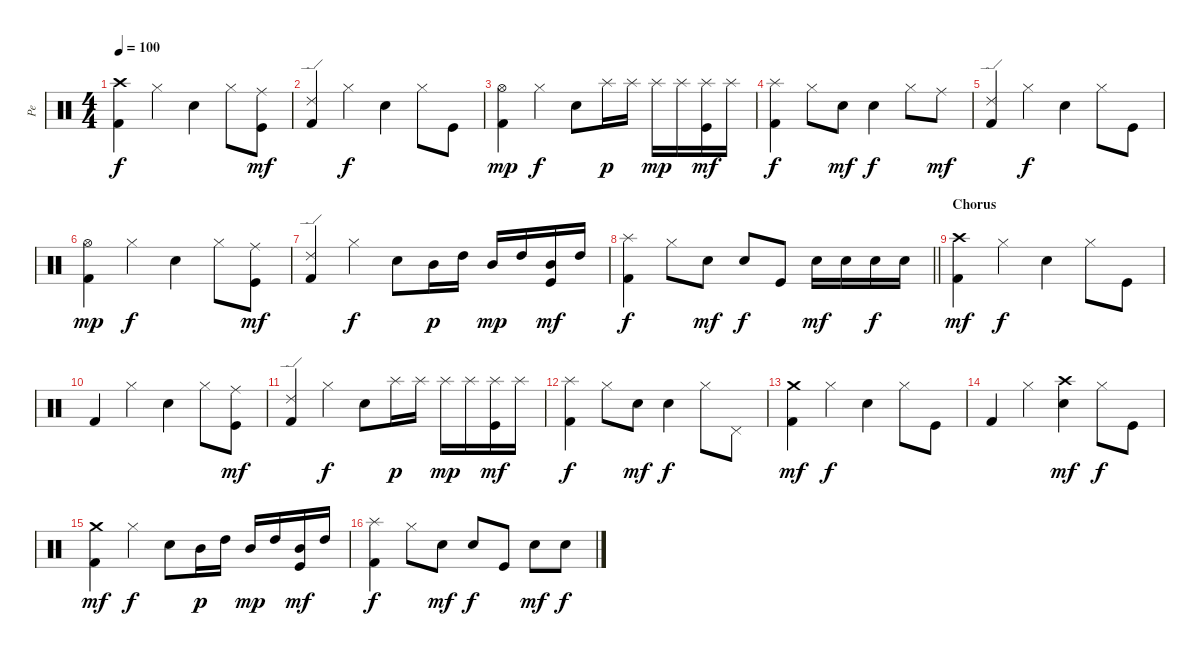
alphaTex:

\track ("Pe" "Pe") {instrument percussion}
\staff {score}
\articulation defaults
\ts (4 4)
\tempo 100
\clef neutral
\ks c
("Kick (hit) 2" "Crash high (hit)").4{dy f} "Hi-Hat (closed)".4 "Electric Snare (hit)".4 "Hi-Hat (closed)".8 ("Kick (hit)" "Ride (middle)").8{dy mf} |
("Kick (hit) 2" "Ride (edge) 2").4 "Hi-Hat (closed)".4{dy f} "Electric Snare (hit)".4 "Hi-Hat (closed)".8 "Kick (hit)".8 |
("Kick (hit) 2" "Hi-Hat (open)").4{dy mp} "Hi-Hat (closed)".4{dy f} "Electric Snare (hit)".8 "Splash (hit)".16{dy p} "Splash (hit)".16 "Splash (hit)".16{dy mp} "Splash (hit)".16 ("Kick (hit)" "Splash (hit)").16{dy mf} "Splash (hit)".16 |
("Kick (hit) 2" "Splash (hit)").4{dy f} "Hi-Hat (closed)".8 "Electric Snare (hit)".8{dy mf} "Electric Snare (hit)".4{dy f} "Hi-Hat (closed)".8 "Ride (middle)".8{dy mf} |
("Kick (hit) 2" "Ride (edge) 2").4 "Hi-Hat (closed)".4{dy f} "Electric Snare (hit)".4 "Hi-Hat (closed)".8 "Kick (hit)".8 |
("Kick (hit) 2" "Hi-Hat (open)").4{dy mp} "Hi-Hat (closed)".4{dy f} "Electric Snare (hit)".4 "Hi-Hat (closed)".8 ("Kick (hit)" "Ride (middle)").8{dy mf} |
("Kick (hit) 2" "Ride (edge) 2").4 "Hi-Hat (closed)".4{dy f} "Electric Snare (hit)".8 "Mid Tom (hit)".16{dy p} "High Tom (hit)".16 "Mid Tom (hit)".16{dy mp} "High Tom (hit)".16 ("Kick (hit)" "Mid Tom (hit)").16{dy mf} "High Tom (hit)".16 |
\barLineRight lightlight
("Kick (hit) 2" "Splash (hit)").4{dy f} "Hi-Hat (closed)".8 "Electric Snare (hit)".8{dy mf} "Electric Snare (hit)".8{dy f} "Kick (hit)".8 "Electric Snare (hit)".16{dy mf} "Electric Snare (hit)".16 "Electric Snare (hit)".16{dy f} "Electric Snare (hit)".16 |
\section ("" "Chorus")
("Kick (hit) 2" "Crash high (hit)").4{dy mf} "Hi-Hat (closed)".4{dy f} "Electric Snare (hit)".4 "Hi-Hat (closed)".8 "Kick (hit)".8 |
"Kick (hit) 2".4 "Hi-Hat (closed)".4 "Electric Snare (hit)".4 "Hi-Hat (closed)".8 ("Kick (hit)" "Ride (middle)").8{dy mf} |
("Kick (hit) 2" "Ride (edge) 2").4 "Hi-Hat (closed)".4{dy f} "Electric Snare (hit)".8 "Splash (hit)".16{dy p} "Splash (hit)".16 "Splash (hit)".16{dy mp} "Splash (hit)".16 ("Kick (hit)" "Splash (hit)").16{dy mf} "Splash (hit)".16 |
("Kick (hit) 2" "Splash (hit)").4{dy f} "Hi-Hat (closed)".8 "Electric Snare (hit)".8{dy mf} "Electric Snare (hit)".4{dy f} "Hi-Hat (closed)".8 "Pedal Hi-Hat (hit)".8 |
("Kick (hit) 2" "Crash medium (hit)").4{dy mf} "Hi-Hat (closed)".4{dy f} "Electric Snare (hit)".4 "Hi-Hat (closed)".8 "Kick (hit)".8 |
"Kick (hit) 2".4 "Hi-Hat (closed)".4 ("Electric Snare (hit)" "Crash high (hit)").4{dy mf} "Hi-Hat (closed)".8{dy f} "Kick (hit)".8 |
("Kick (hit) 2" "Crash medium (hit)").4{dy mf} "Hi-Hat (closed)".4{dy f} "Electric Snare (hit)".8 "Mid Tom (hit)".16{dy p} "High Tom (hit)".16 "Mid Tom (hit)".16{dy mp} "High Tom (hit)".16 ("Kick (hit)" "Mid Tom (hit)").16{dy mf} "High Tom (hit)".16 |
("Kick (hit) 2" "Splash (hit)").4{dy f} "Hi-Hat (closed)".8 "Electric Snare (hit)".8{dy mf} "Electric Snare (hit)".8{dy f} "Kick (hit)".8 "Electric Snare (hit)".8{dy mf} "Electric Snare (hit)".8{dy f}
